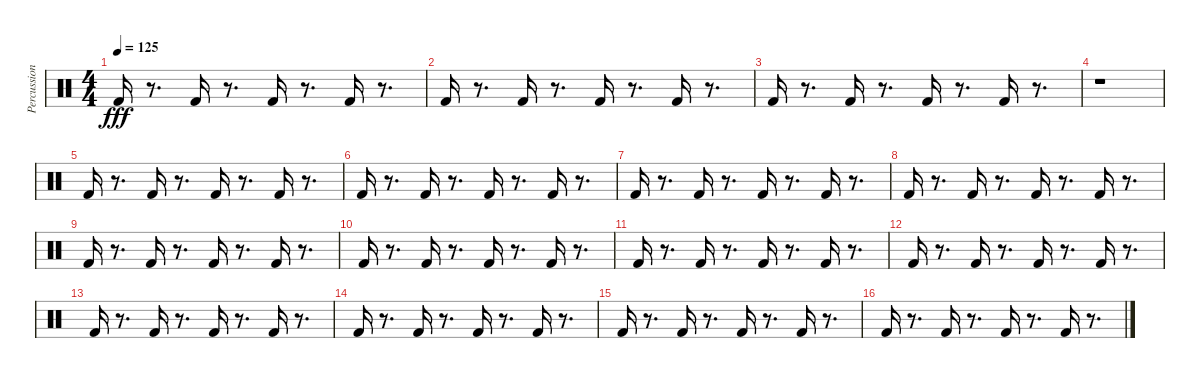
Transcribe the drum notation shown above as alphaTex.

\track ("Percussion" "Percussion") {instrument percussion}
\staff {score}
\articulation defaults
\ts (4 4)
\tempo 125
\clef neutral
\ks c "Kick (hit) 2".16{dy fff}
r.8{d} "Kick (hit) 2".16 r.8{d} "Kick (hit) 2".16 r.8{d} "Kick (hit) 2".16 r.8{d} |
"Kick (hit) 2".16 r.8{d} "Kick (hit) 2".16 r.8{d} "Kick (hit) 2".16 r.8{d} "Kick (hit) 2".16 r.8{d} |
"Kick (hit) 2".16 r.8{d} "Kick (hit) 2".16 r.8{d} "Kick (hit) 2".16 r.8{d} "Kick (hit) 2".16 r.8{d} |
r.1 |
"Kick (hit) 2".16 r.8{d} "Kick (hit) 2".16 r.8{d} "Kick (hit) 2".16 r.8{d} "Kick (hit) 2".16 r.8{d} |
"Kick (hit) 2".16 r.8{d} "Kick (hit) 2".16 r.8{d} "Kick (hit) 2".16 r.8{d} "Kick (hit) 2".16 r.8{d} |
"Kick (hit) 2".16 r.8{d} "Kick (hit) 2".16 r.8{d} "Kick (hit) 2".16 r.8{d} "Kick (hit) 2".16 r.8{d} |
"Kick (hit) 2".16 r.8{d} "Kick (hit) 2".16 r.8{d} "Kick (hit) 2".16 r.8{d} "Kick (hit) 2".16 r.8{d} |
"Kick (hit) 2".16 r.8{d} "Kick (hit) 2".16 r.8{d} "Kick (hit) 2".16 r.8{d} "Kick (hit) 2".16 r.8{d} |
"Kick (hit) 2".16 r.8{d} "Kick (hit) 2".16 r.8{d} "Kick (hit) 2".16 r.8{d} "Kick (hit) 2".16 r.8{d} |
"Kick (hit) 2".16 r.8{d} "Kick (hit) 2".16 r.8{d} "Kick (hit) 2".16 r.8{d} "Kick (hit) 2".16 r.8{d} |
"Kick (hit) 2".16 r.8{d} "Kick (hit) 2".16 r.8{d} "Kick (hit) 2".16 r.8{d} "Kick (hit) 2".16 r.8{d} |
"Kick (hit) 2".16 r.8{d} "Kick (hit) 2".16 r.8{d} "Kick (hit) 2".16 r.8{d} "Kick (hit) 2".16 r.8{d} |
"Kick (hit) 2".16 r.8{d} "Kick (hit) 2".16 r.8{d} "Kick (hit) 2".16 r.8{d} "Kick (hit) 2".16 r.8{d} |
"Kick (hit) 2".16 r.8{d} "Kick (hit) 2".16 r.8{d} "Kick (hit) 2".16 r.8{d} "Kick (hit) 2".16 r.8{d} |
"Kick (hit) 2".16 r.8{d} "Kick (hit) 2".16 r.8{d} "Kick (hit) 2".16 r.8{d} "Kick (hit) 2".16 r.8{d}
